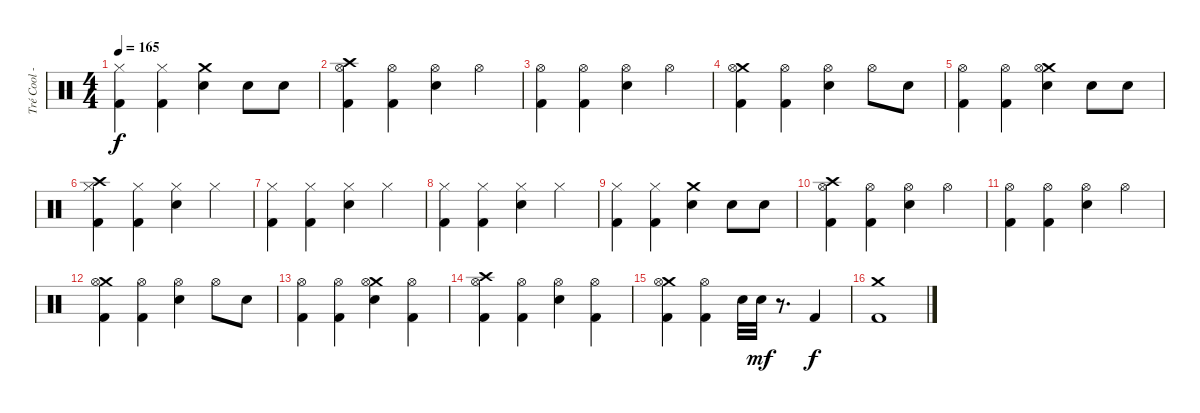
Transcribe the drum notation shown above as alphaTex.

\track ("Tré Cool - Drums" "Tré Cool -") {instrument percussion}
\staff {score}
\articulation defaults
\ts (4 4)
\tempo 165
\clef neutral
\ks c
("Hi-Hat (closed)" "Kick (hit) 2").4{dy f} ("Hi-Hat (closed)" "Kick (hit) 2").4 ("Crash medium (hit)" "Electric Snare (hit)").4 "Electric Snare (hit)".8 "Electric Snare (hit)".8 |
("Crash high (hit)" "Hi-Hat (open)" "Kick (hit) 2").4 ("Hi-Hat (open)" "Kick (hit) 2").4 ("Hi-Hat (open)" "Electric Snare (hit)").4 "Hi-Hat (open)".4 |
("Hi-Hat (open)" "Kick (hit) 2").4 ("Hi-Hat (open)" "Kick (hit) 2").4 ("Hi-Hat (open)" "Electric Snare (hit)").4 "Hi-Hat (open)".4 |
("Crash medium (hit)" "Hi-Hat (open)" "Kick (hit) 2").4 ("Hi-Hat (open)" "Kick (hit) 2").4 ("Hi-Hat (open)" "Electric Snare (hit)").4 "Hi-Hat (open)".8 "Electric Snare (hit)".8 |
("Hi-Hat (open)" "Kick (hit) 2").4 ("Hi-Hat (open)" "Kick (hit) 2").4 ("Crash medium (hit)" "Hi-Hat (open)" "Electric Snare (hit)").4 "Electric Snare (hit)".8 "Electric Snare (hit)".8 |
("Crash high (hit)" "Hi-Hat (closed)" "Kick (hit) 2").4 ("Hi-Hat (closed)" "Kick (hit) 2").4 ("Hi-Hat (closed)" "Electric Snare (hit)").4 "Hi-Hat (closed)".4 |
("Hi-Hat (closed)" "Kick (hit) 2").4 ("Hi-Hat (closed)" "Kick (hit) 2").4 ("Hi-Hat (closed)" "Electric Snare (hit)").4 "Hi-Hat (closed)".4 |
("Hi-Hat (closed)" "Kick (hit) 2").4 ("Hi-Hat (closed)" "Kick (hit) 2").4 ("Hi-Hat (closed)" "Electric Snare (hit)").4 "Hi-Hat (closed)".4 |
("Hi-Hat (closed)" "Kick (hit) 2").4 ("Hi-Hat (closed)" "Kick (hit) 2").4 ("Crash medium (hit)" "Electric Snare (hit)").4 "Electric Snare (hit)".8 "Electric Snare (hit)".8 |
("Crash high (hit)" "Hi-Hat (open)" "Kick (hit) 2").4 ("Hi-Hat (open)" "Kick (hit) 2").4 ("Hi-Hat (open)" "Electric Snare (hit)").4 "Hi-Hat (open)".4 |
("Hi-Hat (open)" "Kick (hit) 2").4 ("Hi-Hat (open)" "Kick (hit) 2").4 ("Hi-Hat (open)" "Electric Snare (hit)").4 "Hi-Hat (open)".4 |
("Crash medium (hit)" "Hi-Hat (open)" "Kick (hit) 2").4 ("Hi-Hat (open)" "Kick (hit) 2").4 ("Hi-Hat (open)" "Electric Snare (hit)").4 "Hi-Hat (open)".8 "Electric Snare (hit)".8 |
("Hi-Hat (open)" "Kick (hit) 2").4 ("Hi-Hat (open)" "Kick (hit) 2").4 ("Crash medium (hit)" "Hi-Hat (open)" "Electric Snare (hit)").4 ("Hi-Hat (open)" "Kick (hit) 2").4 |
("Crash high (hit)" "Hi-Hat (open)" "Kick (hit) 2").4 ("Hi-Hat (open)" "Kick (hit) 2").4 ("Hi-Hat (open)" "Electric Snare (hit)").4 ("Hi-Hat (open)" "Kick (hit) 2").4 |
("Crash medium (hit)" "Hi-Hat (open)" "Kick (hit) 2").4 ("Hi-Hat (open)" "Kick (hit) 2").4 "Electric Snare (hit)".32 "Electric Snare (hit)".32{dy mf} r.8{d} "Kick (hit) 2".4{dy f} |
("Crash medium (hit)" "Kick (hit) 2").1
